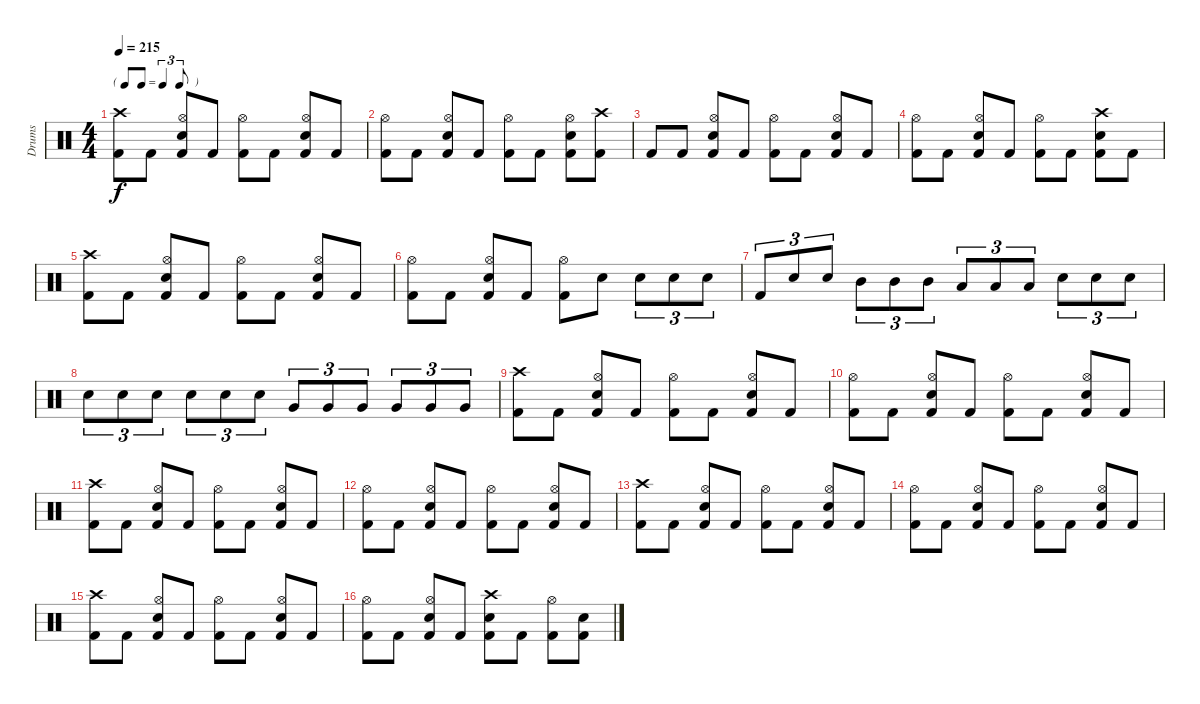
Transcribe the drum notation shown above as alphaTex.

\track ("Drums" "Drums") {instrument percussion}
\staff {score}
\articulation defaults
\ts (4 4)
\tf triplet8th
\tempo 215
\clef neutral
\ks c
("Crash high (hit)" "Kick (hit) 2").8{dy f} "Kick (hit) 2".8 ("Hi-Hat (open)" "Electric Snare (hit)" "Kick (hit) 2").8 "Kick (hit) 2".8 ("Hi-Hat (open)" "Kick (hit) 2").8 "Kick (hit) 2".8 ("Hi-Hat (open)" "Electric Snare (hit)" "Kick (hit) 2").8 "Kick (hit) 2".8 |
("Hi-Hat (open)" "Kick (hit) 2").8 "Kick (hit) 2".8 ("Hi-Hat (open)" "Electric Snare (hit)" "Kick (hit) 2").8 "Kick (hit) 2".8 ("Hi-Hat (open)" "Kick (hit) 2").8 "Kick (hit) 2".8 ("Hi-Hat (open)" "Electric Snare (hit)" "Kick (hit) 2").8 ("Crash high (hit)" "Kick (hit) 2").8 |
"Kick (hit) 2".8 "Kick (hit) 2".8 ("Hi-Hat (open)" "Electric Snare (hit)" "Kick (hit) 2").8 "Kick (hit) 2".8 ("Hi-Hat (open)" "Kick (hit) 2").8 "Kick (hit) 2".8 ("Hi-Hat (open)" "Electric Snare (hit)" "Kick (hit) 2").8 "Kick (hit) 2".8 |
("Hi-Hat (open)" "Kick (hit) 2").8 "Kick (hit) 2".8 ("Hi-Hat (open)" "Electric Snare (hit)" "Kick (hit) 2").8 "Kick (hit) 2".8 ("Hi-Hat (open)" "Kick (hit) 2").8 "Kick (hit) 2".8 ("Crash high (hit)" "Electric Snare (hit)" "Kick (hit) 2").8 "Kick (hit) 2".8 |
("Crash high (hit)" "Kick (hit) 2").8 "Kick (hit) 2".8 ("Hi-Hat (open)" "Electric Snare (hit)" "Kick (hit) 2").8 "Kick (hit) 2".8 ("Hi-Hat (open)" "Kick (hit) 2").8 "Kick (hit) 2".8 ("Hi-Hat (open)" "Electric Snare (hit)" "Kick (hit) 2").8 "Kick (hit) 2".8 |
("Hi-Hat (open)" "Kick (hit) 2").8 "Kick (hit) 2".8 ("Hi-Hat (open)" "Electric Snare (hit)" "Kick (hit) 2").8 "Kick (hit) 2".8 ("Hi-Hat (open)" "Kick (hit) 2").8 "Electric Snare (hit)".8 "Electric Snare (hit)".8{tu (3 2)} "Electric Snare (hit)".8{tu (3 2)} "Electric Snare (hit)".8{tu (3 2)} |
"Kick (hit) 2".8{tu (3 2)} "Electric Snare (hit)".8{tu (3 2)} "Electric Snare (hit)".8{tu (3 2)} "Mid Tom (hit)".8{tu (3 2)} "Mid Tom (hit)".8{tu (3 2)} "Mid Tom (hit)".8{tu (3 2)} "Low Tom (hit)".8{tu (3 2)} "Low Tom (hit)".8{tu (3 2)} "Low Tom (hit)".8{tu (3 2)} "Electric Snare (hit)".8{tu (3 2)} "Electric Snare (hit)".8{tu (3 2)} "Electric Snare (hit)".8{tu (3 2)} |
"Electric Snare (hit)".8{tu (3 2)} "Electric Snare (hit)".8{tu (3 2)} "Electric Snare (hit)".8{tu (3 2)} "Electric Snare (hit)".8{tu (3 2)} "Electric Snare (hit)".8{tu (3 2)} "Electric Snare (hit)".8{tu (3 2)} "Very Low Tom (hit)".8{tu (3 2)} "Very Low Tom (hit)".8{tu (3 2)} "Very Low Tom (hit)".8{tu (3 2)} "Very Low Tom (hit)".8{tu (3 2)} "Very Low Tom (hit)".8{tu (3 2)} "Very Low Tom (hit)".8{tu (3 2)} |
("Crash high (hit)" "Kick (hit) 2").8 "Kick (hit) 2".8 ("Hi-Hat (open)" "Electric Snare (hit)" "Kick (hit) 2").8 "Kick (hit) 2".8 ("Hi-Hat (open)" "Kick (hit) 2").8 "Kick (hit) 2".8 ("Hi-Hat (open)" "Electric Snare (hit)" "Kick (hit) 2").8 "Kick (hit) 2".8 |
("Hi-Hat (open)" "Kick (hit) 2").8 "Kick (hit) 2".8 ("Hi-Hat (open)" "Electric Snare (hit)" "Kick (hit) 2").8 "Kick (hit) 2".8 ("Hi-Hat (open)" "Kick (hit) 2").8 "Kick (hit) 2".8 ("Hi-Hat (open)" "Electric Snare (hit)" "Kick (hit) 2").8 "Kick (hit) 2".8 |
("Crash high (hit)" "Kick (hit) 2").8 "Kick (hit) 2".8 ("Hi-Hat (open)" "Electric Snare (hit)" "Kick (hit) 2").8 "Kick (hit) 2".8 ("Hi-Hat (open)" "Kick (hit) 2").8 "Kick (hit) 2".8 ("Hi-Hat (open)" "Electric Snare (hit)" "Kick (hit) 2").8 "Kick (hit) 2".8 |
("Hi-Hat (open)" "Kick (hit) 2").8 "Kick (hit) 2".8 ("Hi-Hat (open)" "Electric Snare (hit)" "Kick (hit) 2").8 "Kick (hit) 2".8 ("Hi-Hat (open)" "Kick (hit) 2").8 "Kick (hit) 2".8 ("Hi-Hat (open)" "Electric Snare (hit)" "Kick (hit) 2").8 "Kick (hit) 2".8 |
("Crash high (hit)" "Kick (hit) 2").8 "Kick (hit) 2".8 ("Hi-Hat (open)" "Electric Snare (hit)" "Kick (hit) 2").8 "Kick (hit) 2".8 ("Hi-Hat (open)" "Kick (hit) 2").8 "Kick (hit) 2".8 ("Hi-Hat (open)" "Electric Snare (hit)" "Kick (hit) 2").8 "Kick (hit) 2".8 |
("Hi-Hat (open)" "Kick (hit) 2").8 "Kick (hit) 2".8 ("Hi-Hat (open)" "Electric Snare (hit)" "Kick (hit) 2").8 "Kick (hit) 2".8 ("Hi-Hat (open)" "Kick (hit) 2").8 "Kick (hit) 2".8 ("Hi-Hat (open)" "Electric Snare (hit)" "Kick (hit) 2").8 "Kick (hit) 2".8 |
("Crash high (hit)" "Kick (hit) 2").8 "Kick (hit) 2".8 ("Hi-Hat (open)" "Electric Snare (hit)" "Kick (hit) 2").8 "Kick (hit) 2".8 ("Hi-Hat (open)" "Kick (hit) 2").8 "Kick (hit) 2".8 ("Hi-Hat (open)" "Electric Snare (hit)" "Kick (hit) 2").8 "Kick (hit) 2".8 |
("Hi-Hat (open)" "Kick (hit) 2").8 "Kick (hit) 2".8 ("Hi-Hat (open)" "Electric Snare (hit)" "Kick (hit) 2").8 "Kick (hit) 2".8 ("Crash high (hit)" "Electric Snare (hit)" "Kick (hit) 2").8 "Kick (hit) 2".8 ("Hi-Hat (open)" "Kick (hit) 2").8 ("Electric Snare (hit)" "Kick (hit) 2").8
